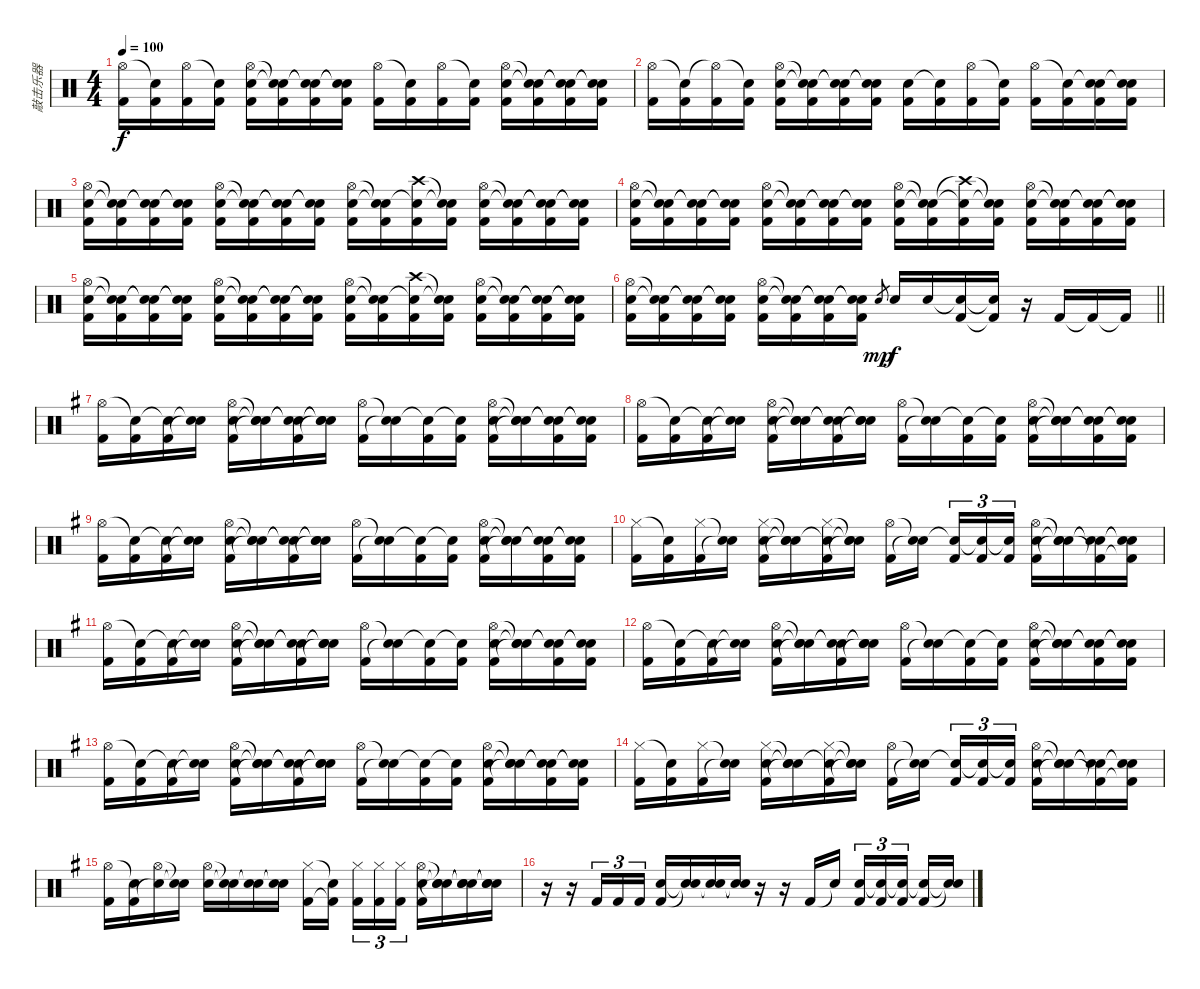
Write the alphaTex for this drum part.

\track ("敲击乐器" "敲击乐器") {instrument percussion}
\staff {score}
\articulation defaults
\ts (4 4)
\tempo 100
\clef neutral
\ks c
("Hi-Hat (open)" "Kick (hit) 2").16{dy f} ("Snare (hit)"{t} "Kick (hit) 2").16 ("Hi-Hat (open)" "Kick (hit) 2").16 ("Snare (hit)"{t} "Kick (hit) 2").16 ("Hi-Hat (open)" "Snare (hit) 2" "Kick (hit) 2").16 ("Snare (hit)"{t} "Snare (hit)"{t} "Kick (hit) 2").16 ("Snare (hit)"{t} "Snare (hit)"{t} "Kick (hit) 2").16 ("Snare (hit)"{t} "Snare (hit)"{t} "Kick (hit) 2").16 ("Hi-Hat (open)" "Kick (hit) 2").16 ("Snare (hit)"{t} "Kick (hit) 2").16 ("Hi-Hat (open)" "Kick (hit) 2").16 ("Snare (hit)"{t} "Kick (hit) 2").16 ("Hi-Hat (open)" "Snare (hit) 2" "Kick (hit) 2").16 ("Snare (hit)"{t} "Snare (hit)"{t} "Kick (hit) 2").16 ("Snare (hit)"{t} "Snare (hit)"{t} "Kick (hit) 2").16 ("Snare (hit)"{t} "Snare (hit)"{t} "Kick (hit) 2").16 |
("Hi-Hat (open)" "Kick (hit) 2").16 ("Snare (hit)"{t} "Kick (hit) 2").16 ("Hi-Hat (open)"{t} "Kick (hit) 2").16 ("Snare (hit)"{t} "Kick (hit) 2").16 ("Hi-Hat (open)" "Snare (hit) 2" "Kick (hit) 2").16 ("Snare (hit)"{t} "Snare (hit)"{t} "Kick (hit) 2").16 ("Snare (hit)"{t} "Snare (hit)"{t} "Kick (hit) 2").16 ("Snare (hit)"{t} "Snare (hit)"{t} "Kick (hit) 2").16 ("Snare (hit) 2" "Kick (hit) 2").16 ("Snare (hit)"{t} "Kick (hit) 2").16 ("Hi-Hat (open)" "Kick (hit) 2").16 ("Snare (hit)"{t} "Kick (hit) 2").16 ("Hi-Hat (open)" "Kick (hit) 2").16 ("Snare (hit)"{t} "Kick (hit) 2").16 ("Snare (hit)"{t} "Snare (hit) 2" "Kick (hit) 2").16 ("Snare (hit)"{t} "Snare (hit) 2" "Kick (hit) 2").16 |
("Hi-Hat (open)" "Snare (hit) 2" "Kick (hit) 2").16 ("Snare (hit)"{t} "Snare (hit) 2"{t} "Kick (hit) 2").16 ("Snare (hit)"{t} "Snare (hit) 2"{t} "Kick (hit) 2").16 ("Snare (hit)"{t} "Snare (hit) 2"{t} "Kick (hit) 2").16 ("Hi-Hat (open)" "Snare (hit) 2" "Kick (hit) 2").16 ("Snare (hit)"{t} "Snare (hit) 2"{t} "Kick (hit) 2").16 ("Snare (hit)"{t} "Snare (hit) 2"{t} "Kick (hit) 2").16 ("Snare (hit)"{t} "Snare (hit) 2"{t} "Kick (hit) 2").16 ("Hi-Hat (open)" "Snare (hit) 2" "Kick (hit) 2").16 ("Snare (hit)"{t} "Snare (hit) 2"{t} "Kick (hit) 2").16 ("Crash high (hit)" "Snare (hit) 2"{t} "Kick (hit) 2").16 ("Snare (hit)"{t} "Snare (hit) 2"{t} "Kick (hit) 2").16 ("Hi-Hat (open)" "Snare (hit) 2" "Kick (hit) 2").16 ("Snare (hit)"{t} "Snare (hit) 2"{t} "Kick (hit) 2").16 ("Snare (hit)"{t} "Snare (hit) 2"{t} "Kick (hit) 2").16 ("Snare (hit)"{t} "Snare (hit) 2"{t} "Kick (hit) 2").16 |
("Hi-Hat (open)" "Snare (hit) 2" "Kick (hit) 2").16 ("Snare (hit)"{t} "Snare (hit) 2"{t} "Kick (hit) 2").16 ("Snare (hit)"{t} "Snare (hit) 2"{t} "Kick (hit) 2").16 ("Snare (hit)"{t} "Snare (hit) 2"{t} "Kick (hit) 2").16 ("Hi-Hat (open)" "Snare (hit) 2" "Kick (hit) 2").16 ("Snare (hit)"{t} "Snare (hit) 2"{t} "Kick (hit) 2").16 ("Snare (hit)"{t} "Snare (hit) 2"{t} "Kick (hit) 2").16 ("Snare (hit)"{t} "Snare (hit) 2"{t} "Kick (hit) 2").16 ("Hi-Hat (open)" "Snare (hit) 2" "Kick (hit) 2").16 ("Snare (hit)"{t} "Snare (hit) 2"{t} "Kick (hit) 2").16 ("Crash high (hit)"{t} "Snare (hit) 2"{t} "Kick (hit) 2").16 ("Snare (hit)"{t} "Snare (hit) 2"{t} "Kick (hit) 2").16 ("Hi-Hat (open)" "Snare (hit) 2" "Kick (hit) 2").16 ("Snare (hit)"{t} "Snare (hit) 2"{t} "Kick (hit) 2").16 ("Snare (hit)"{t} "Snare (hit) 2"{t} "Kick (hit) 2").16 ("Snare (hit)"{t} "Snare (hit) 2"{t} "Kick (hit) 2").16 |
("Hi-Hat (open)" "Snare (hit) 2" "Kick (hit) 2").16 ("Snare (hit)"{t} "Snare (hit) 2"{t} "Kick (hit) 2").16 ("Snare (hit)"{t} "Snare (hit) 2"{t} "Kick (hit) 2").16 ("Snare (hit)"{t} "Snare (hit) 2"{t} "Kick (hit) 2").16 ("Hi-Hat (open)" "Snare (hit) 2" "Kick (hit) 2").16 ("Snare (hit)"{t} "Snare (hit) 2"{t} "Kick (hit) 2").16 ("Snare (hit)"{t} "Snare (hit) 2"{t} "Kick (hit) 2").16 ("Snare (hit)"{t} "Snare (hit) 2"{t} "Kick (hit) 2").16 ("Hi-Hat (open)" "Snare (hit) 2" "Kick (hit) 2").16 ("Snare (hit)"{t} "Snare (hit) 2"{t} "Kick (hit) 2").16 ("Crash high (hit)" "Snare (hit) 2"{t} "Kick (hit) 2").16 ("Snare (hit)"{t} "Snare (hit) 2"{t} "Kick (hit) 2").16 ("Hi-Hat (open)" "Snare (hit) 2" "Kick (hit) 2").16 ("Snare (hit)"{t} "Snare (hit) 2"{t} "Kick (hit) 2").16 ("Snare (hit)"{t} "Snare (hit) 2"{t} "Kick (hit) 2").16 ("Snare (hit)"{t} "Snare (hit) 2"{t} "Kick (hit) 2").16 |
\barLineRight lightlight
("Hi-Hat (open)" "Snare (hit) 2" "Kick (hit) 2").16 ("Snare (hit)"{t} "Snare (hit) 2"{t} "Kick (hit) 2").16 ("Snare (hit)"{t} "Snare (hit) 2"{t} "Kick (hit) 2").16 ("Snare (hit)"{t} "Snare (hit) 2"{t} "Kick (hit) 2").16 ("Hi-Hat (open)" "Snare (hit) 2" "Kick (hit) 2").16 ("Snare (hit)"{t} "Snare (hit) 2"{t} "Kick (hit) 2").16 ("Snare (hit)"{t} "Snare (hit) 2"{t} "Kick (hit) 2").16 ("Snare (hit)"{t} "Snare (hit) 2"{t} "Kick (hit) 2").16 "Snare (hit) 2".8{gr dy mp} "Snare (hit) 2".16{dy f} "Snare (hit) 2".16 ("Snare (hit) 2"{t} "Kick (hit) 2").16 ("Snare (hit) 2"{t} "Kick (hit) 2"{t}).16 r.16 "Kick (hit) 2".16 "Kick (hit) 2"{t}.16 "Kick (hit) 2"{t}.16 |
\ks g
("Hi-Hat (open)" "Kick (hit) 2").16 ("Snare (hit)"{t} "Kick (hit) 2").16 ("Snare (hit)"{t} "Kick (hit) 2").16 ("Snare (hit)"{t} "Snare (hit)"{t}).16 ("Hi-Hat (open)" "Snare (hit) 2" "Kick (hit) 2").16 ("Snare (hit)"{t} "Snare (hit)"{t} "Snare (hit)"{t}).16 ("Snare (hit)"{t} "Snare (hit)"{t} "Kick (hit) 2").16 ("Snare (hit)"{t} "Snare (hit)"{t} "Snare (hit)"{t}).16 ("Hi-Hat (open)" "Kick (hit) 2").16 ("Snare (hit)"{t} "Snare (hit)"{t}).16 ("Snare (hit)"{t} "Kick (hit) 2").16 ("Snare (hit)"{t} "Kick (hit) 2").16 ("Hi-Hat (open)" "Snare (hit) 2" "Kick (hit) 2").16 ("Snare (hit)"{t} "Snare (hit)"{t} "Snare (hit)"{t}).16 ("Snare (hit)"{t} "Snare (hit)"{t} "Kick (hit) 2").16 ("Snare (hit)"{t} "Snare (hit)"{t} "Kick (hit) 2").16 |
("Hi-Hat (open)" "Kick (hit) 2").16 ("Snare (hit)"{t} "Kick (hit) 2").16 ("Snare (hit)"{t} "Kick (hit) 2").16 ("Snare (hit)"{t} "Snare (hit)"{t}).16 ("Hi-Hat (open)" "Snare (hit) 2" "Kick (hit) 2").16 ("Snare (hit)"{t} "Snare (hit)"{t} "Snare (hit)"{t}).16 ("Snare (hit)"{t} "Snare (hit)"{t} "Kick (hit) 2").16 ("Snare (hit)"{t} "Snare (hit)"{t} "Snare (hit)"{t}).16 ("Hi-Hat (open)" "Kick (hit) 2").16 ("Snare (hit)"{t} "Snare (hit)"{t}).16 ("Snare (hit)"{t} "Kick (hit) 2").16 ("Snare (hit)"{t} "Kick (hit) 2").16 ("Hi-Hat (open)" "Snare (hit) 2" "Kick (hit) 2").16 ("Snare (hit)"{t} "Snare (hit)"{t} "Snare (hit)"{t}).16 ("Snare (hit)"{t} "Snare (hit)"{t} "Kick (hit) 2").16 ("Snare (hit)"{t} "Snare (hit)"{t} "Kick (hit) 2").16 |
("Hi-Hat (open)" "Kick (hit) 2").16 ("Snare (hit)"{t} "Kick (hit) 2").16 ("Snare (hit)"{t} "Kick (hit) 2").16 ("Snare (hit)"{t} "Snare (hit)"{t}).16 ("Hi-Hat (open)" "Snare (hit) 2" "Kick (hit) 2").16 ("Snare (hit)"{t} "Snare (hit)"{t} "Snare (hit)"{t}).16 ("Snare (hit)"{t} "Snare (hit)"{t} "Kick (hit) 2").16 ("Snare (hit)"{t} "Snare (hit)"{t} "Snare (hit)"{t}).16 ("Hi-Hat (open)" "Kick (hit) 2").16 ("Snare (hit)"{t} "Snare (hit)"{t}).16 ("Snare (hit)"{t} "Kick (hit) 2").16 ("Snare (hit)"{t} "Kick (hit) 2").16 ("Hi-Hat (open)" "Snare (hit) 2" "Kick (hit) 2").16 ("Snare (hit)"{t} "Snare (hit)"{t} "Snare (hit)"{t}).16 ("Snare (hit)"{t} "Snare (hit)"{t} "Kick (hit) 2").16 ("Snare (hit)"{t} "Snare (hit)"{t} "Kick (hit) 2").16 |
("Hi-Hat (closed)" "Kick (hit) 2").16 ("Snare (hit)"{t} "Kick (hit) 2").16 ("Hi-Hat (closed)" "Kick (hit) 2").16 ("Snare (hit)"{t} "Snare (hit)"{t}).16 ("Hi-Hat (closed)" "Snare (hit) 2" "Kick (hit) 2").16 ("Snare (hit)"{t} "Snare (hit)"{t} "Snare (hit)"{t}).16 ("Hi-Hat (closed)" "Snare (hit)"{t} "Kick (hit) 2").16 ("Snare (hit)"{t} "Snare (hit)"{t} "Snare (hit)"{t}).16 ("Hi-Hat (open)" "Kick (hit) 2").16 ("Snare (hit)"{t} "Snare (hit)"{t}).16{beam splitsecondary} ("Snare (hit)"{t} "Kick (hit) 2").16{tu (3 2)} ("Snare (hit)"{t} "Kick (hit) 2").16{tu (3 2)} ("Snare (hit)"{t} "Kick (hit) 2").16{tu (3 2)} ("Hi-Hat (open)" "Snare (hit) 2" "Kick (hit) 2").16 ("Snare (hit)"{t} "Snare (hit)"{t} "Snare (hit)"{t}).16 ("Snare (hit)"{t} "Snare (hit)"{t} "Kick (hit) 2"{t}).16 ("Snare (hit)"{t} "Snare (hit)"{t} "Kick (hit) 2"{t}).16 |
("Hi-Hat (open)" "Kick (hit) 2").16 ("Snare (hit)"{t} "Kick (hit) 2").16 ("Snare (hit)"{t} "Kick (hit) 2").16 ("Snare (hit)"{t} "Snare (hit)"{t}).16 ("Hi-Hat (open)" "Snare (hit) 2" "Kick (hit) 2").16 ("Snare (hit)"{t} "Snare (hit)"{t} "Snare (hit)"{t}).16 ("Snare (hit)"{t} "Snare (hit)"{t} "Kick (hit) 2").16 ("Snare (hit)"{t} "Snare (hit)"{t} "Snare (hit)"{t}).16 ("Hi-Hat (open)" "Kick (hit) 2").16 ("Snare (hit)"{t} "Snare (hit)"{t}).16 ("Snare (hit)"{t} "Kick (hit) 2").16 ("Snare (hit)"{t} "Kick (hit) 2").16 ("Hi-Hat (open)" "Snare (hit) 2" "Kick (hit) 2").16 ("Snare (hit)"{t} "Snare (hit)"{t} "Snare (hit)"{t}).16 ("Snare (hit)"{t} "Snare (hit)"{t} "Kick (hit) 2").16 ("Snare (hit)"{t} "Snare (hit)"{t} "Kick (hit) 2").16 |
("Hi-Hat (open)" "Kick (hit) 2").16 ("Snare (hit)"{t} "Kick (hit) 2").16 ("Snare (hit)"{t} "Kick (hit) 2").16 ("Snare (hit)"{t} "Snare (hit)"{t}).16 ("Hi-Hat (open)" "Snare (hit) 2" "Kick (hit) 2").16 ("Snare (hit)"{t} "Snare (hit)"{t} "Snare (hit)"{t}).16 ("Snare (hit)"{t} "Snare (hit)"{t} "Kick (hit) 2").16 ("Snare (hit)"{t} "Snare (hit)"{t} "Snare (hit)"{t}).16 ("Hi-Hat (open)" "Kick (hit) 2").16 ("Snare (hit)"{t} "Snare (hit)"{t}).16 ("Snare (hit)"{t} "Kick (hit) 2").16 ("Snare (hit)"{t} "Kick (hit) 2").16 ("Hi-Hat (open)" "Snare (hit) 2" "Kick (hit) 2").16 ("Snare (hit)"{t} "Snare (hit)"{t} "Snare (hit)"{t}).16 ("Snare (hit)"{t} "Snare (hit)"{t} "Kick (hit) 2").16 ("Snare (hit)"{t} "Snare (hit)"{t} "Kick (hit) 2").16 |
("Hi-Hat (open)" "Kick (hit) 2").16 ("Snare (hit)"{t} "Kick (hit) 2").16 ("Snare (hit)"{t} "Kick (hit) 2").16 ("Snare (hit)"{t} "Snare (hit)"{t}).16 ("Hi-Hat (open)" "Snare (hit) 2" "Kick (hit) 2").16 ("Snare (hit)"{t} "Snare (hit)"{t} "Snare (hit)"{t}).16 ("Snare (hit)"{t} "Snare (hit)"{t} "Kick (hit) 2").16 ("Snare (hit)"{t} "Snare (hit)"{t} "Snare (hit)"{t}).16 ("Hi-Hat (open)" "Kick (hit) 2").16 ("Snare (hit)"{t} "Snare (hit)"{t}).16 ("Snare (hit)"{t} "Kick (hit) 2").16 ("Snare (hit)"{t} "Kick (hit) 2").16 ("Hi-Hat (open)" "Snare (hit) 2" "Kick (hit) 2").16 ("Snare (hit)"{t} "Snare (hit)"{t} "Snare (hit)"{t}).16 ("Snare (hit)"{t} "Snare (hit)"{t} "Kick (hit) 2").16 ("Snare (hit)"{t} "Snare (hit)"{t} "Kick (hit) 2").16 |
("Hi-Hat (closed)" "Kick (hit) 2").16 ("Snare (hit)"{t} "Kick (hit) 2").16 ("Hi-Hat (closed)" "Kick (hit) 2").16 ("Snare (hit)"{t} "Snare (hit)"{t}).16 ("Hi-Hat (closed)" "Snare (hit) 2" "Kick (hit) 2").16 ("Snare (hit)"{t} "Snare (hit)"{t} "Snare (hit)"{t}).16 ("Hi-Hat (closed)" "Snare (hit)"{t} "Kick (hit) 2").16 ("Snare (hit)"{t} "Snare (hit)"{t} "Snare (hit)"{t}).16 ("Hi-Hat (open)" "Kick (hit) 2").16 ("Snare (hit)"{t} "Snare (hit)"{t}).16{beam splitsecondary} ("Snare (hit)"{t} "Kick (hit) 2").16{tu (3 2)} ("Snare (hit)"{t} "Kick (hit) 2").16{tu (3 2)} ("Snare (hit)"{t} "Kick (hit) 2").16{tu (3 2)} ("Hi-Hat (open)" "Snare (hit) 2" "Kick (hit) 2").16 ("Snare (hit)"{t} "Snare (hit)"{t} "Snare (hit)"{t}).16 ("Snare (hit)"{t} "Snare (hit)"{t} "Kick (hit) 2"{t}).16 ("Snare (hit)"{t} "Snare (hit)"{t} "Kick (hit) 2"{t}).16 |
("Hi-Hat (open)" "Kick (hit) 2").16 ("Snare (hit)"{t} "Kick (hit) 2").16 ("Hi-Hat (open)" "Snare (hit)"{t}).16 ("Snare (hit)"{t} "Snare (hit)"{t}).16 ("Hi-Hat (open)" "Snare (hit) 2").16 ("Snare (hit)"{t} "Snare (hit)"{t}).16 ("Snare (hit)"{t} "Snare (hit)"{t}).16 ("Snare (hit)"{t} "Snare (hit)"{t}).16 ("Hi-Hat (closed)" "Kick (hit) 2").16 ("Snare (hit)"{t} "Kick (hit) 2"{t}).16{beam splitsecondary} ("Hi-Hat (closed)" "Kick (hit) 2").16{tu (3 2)} ("Hi-Hat (closed)" "Kick (hit) 2").16{tu (3 2)} ("Hi-Hat (closed)" "Kick (hit) 2").16{tu (3 2)} ("Hi-Hat (open)" "Snare (hit) 2" "Kick (hit) 2").16 ("Snare (hit)"{t} "Snare (hit)"{t} "Snare (hit)"{t}).16 ("Snare (hit)"{t} "Snare (hit)"{t} "Snare (hit)"{t}).16 ("Snare (hit)"{t} "Snare (hit)"{t} "Snare (hit)"{t}).16 |
r.16 r.16 "Kick (hit) 2".16{tu (3 2)} "Kick (hit) 2".16{tu (3 2)} "Kick (hit) 2".16{tu (3 2)} ("Snare (hit) 2" "Kick (hit) 2").16 ("Snare (hit)"{t} "Snare (hit)"{t}).16 ("Snare (hit) 2" "Snare (hit)"{t}).16 ("Snare (hit)"{t} "Snare (hit)"{t}).16 r.16 r.16 "Kick (hit) 2".16 "Snare (hit)"{t}.16 ("Snare (hit) 2" "Kick (hit) 2").16{tu (3 2)} ("Snare (hit)"{t} "Kick (hit) 2").16{tu (3 2)} ("Snare (hit)"{t} "Kick (hit) 2").16{tu (3 2) beam splitsecondary} ("Snare (hit)"{t} "Kick (hit) 2").16 ("Snare (hit)"{t} "Snare (hit)"{t}).16
